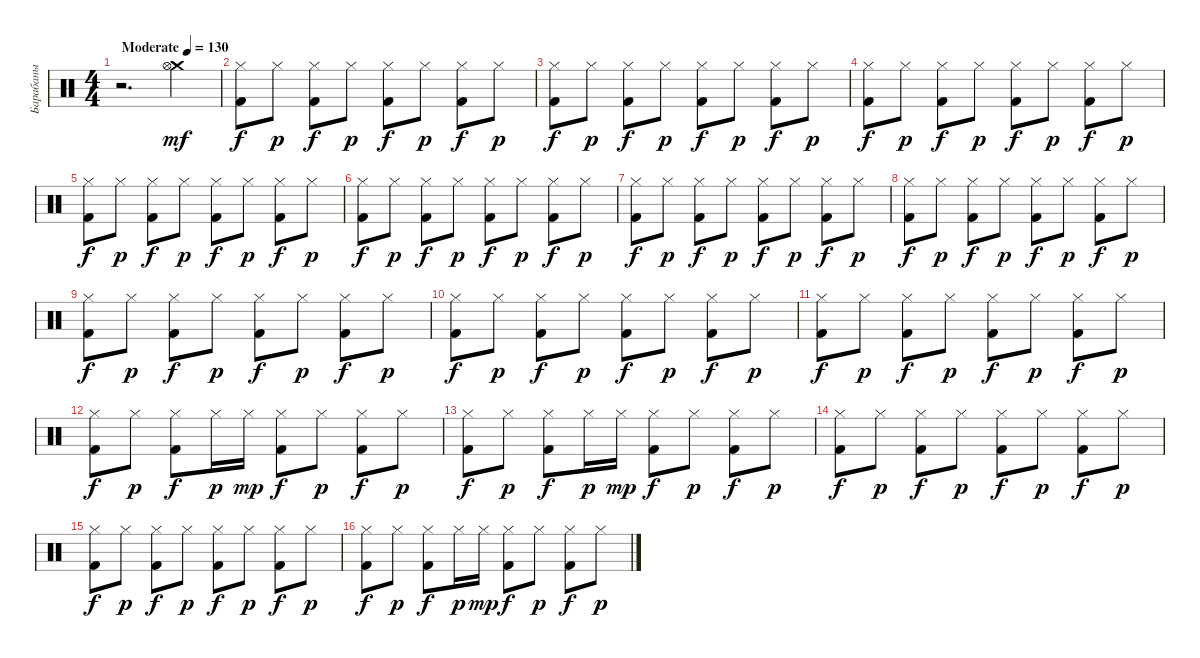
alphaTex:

\track ("Барабаны" "Барабаны") {instrument percussion}
\staff {score}
\articulation defaults
\ts (4 4)
\tempo (130 "Moderate")
\clef neutral
\ks c
r.2{d dy mf} ("Crash medium (hit)" "Hi-Hat (open)").4 |
("Hi-Hat (closed)" "Kick (hit) 2").8{dy f} "Hi-Hat (closed)".8{dy p} ("Hi-Hat (closed)" "Kick (hit) 2").8{dy f} "Hi-Hat (closed)".8{dy p} ("Hi-Hat (closed)" "Kick (hit) 2").8{dy f} "Hi-Hat (closed)".8{dy p} ("Hi-Hat (closed)" "Kick (hit) 2").8{dy f} "Hi-Hat (closed)".8{dy p} |
("Hi-Hat (closed)" "Kick (hit) 2").8{dy f} "Hi-Hat (closed)".8{dy p} ("Hi-Hat (closed)" "Kick (hit) 2").8{dy f} "Hi-Hat (closed)".8{dy p} ("Hi-Hat (closed)" "Kick (hit) 2").8{dy f} "Hi-Hat (closed)".8{dy p} ("Hi-Hat (closed)" "Kick (hit) 2").8{dy f} "Hi-Hat (closed)".8{dy p} |
("Hi-Hat (closed)" "Kick (hit) 2").8{dy f} "Hi-Hat (closed)".8{dy p} ("Hi-Hat (closed)" "Kick (hit) 2").8{dy f} "Hi-Hat (closed)".8{dy p} ("Hi-Hat (closed)" "Kick (hit) 2").8{dy f} "Hi-Hat (closed)".8{dy p} ("Hi-Hat (closed)" "Kick (hit) 2").8{dy f} "Hi-Hat (closed)".8{dy p} |
("Hi-Hat (closed)" "Kick (hit) 2").8{dy f} "Hi-Hat (closed)".8{dy p} ("Hi-Hat (closed)" "Kick (hit) 2").8{dy f} "Hi-Hat (closed)".8{dy p} ("Hi-Hat (closed)" "Kick (hit) 2").8{dy f} "Hi-Hat (closed)".8{dy p} ("Hi-Hat (closed)" "Kick (hit) 2").8{dy f} "Hi-Hat (closed)".8{dy p} |
("Hi-Hat (closed)" "Kick (hit) 2").8{dy f} "Hi-Hat (closed)".8{dy p} ("Hi-Hat (closed)" "Kick (hit) 2").8{dy f} "Hi-Hat (closed)".8{dy p} ("Hi-Hat (closed)" "Kick (hit) 2").8{dy f} "Hi-Hat (closed)".8{dy p} ("Hi-Hat (closed)" "Kick (hit) 2").8{dy f} "Hi-Hat (closed)".8{dy p} |
("Hi-Hat (closed)" "Kick (hit) 2").8{dy f} "Hi-Hat (closed)".8{dy p} ("Hi-Hat (closed)" "Kick (hit) 2").8{dy f} "Hi-Hat (closed)".8{dy p} ("Hi-Hat (closed)" "Kick (hit) 2").8{dy f} "Hi-Hat (closed)".8{dy p} ("Hi-Hat (closed)" "Kick (hit) 2").8{dy f} "Hi-Hat (closed)".8{dy p} |
("Hi-Hat (closed)" "Kick (hit) 2").8{dy f} "Hi-Hat (closed)".8{dy p} ("Hi-Hat (closed)" "Kick (hit) 2").8{dy f} "Hi-Hat (closed)".8{dy p} ("Hi-Hat (closed)" "Kick (hit) 2").8{dy f} "Hi-Hat (closed)".8{dy p} ("Hi-Hat (closed)" "Kick (hit) 2").8{dy f} "Hi-Hat (closed)".8{dy p} |
("Hi-Hat (closed)" "Kick (hit) 2").8{dy f} "Hi-Hat (closed)".8{dy p} ("Hi-Hat (closed)" "Kick (hit) 2").8{dy f} "Hi-Hat (closed)".8{dy p} ("Hi-Hat (closed)" "Kick (hit) 2").8{dy f} "Hi-Hat (closed)".8{dy p} ("Hi-Hat (closed)" "Kick (hit) 2").8{dy f} "Hi-Hat (closed)".8{dy p} |
("Hi-Hat (closed)" "Kick (hit) 2").8{dy f} "Hi-Hat (closed)".8{dy p} ("Hi-Hat (closed)" "Kick (hit) 2").8{dy f} "Hi-Hat (closed)".8{dy p} ("Hi-Hat (closed)" "Kick (hit) 2").8{dy f} "Hi-Hat (closed)".8{dy p} ("Hi-Hat (closed)" "Kick (hit) 2").8{dy f} "Hi-Hat (closed)".8{dy p} |
("Hi-Hat (closed)" "Kick (hit) 2").8{dy f} "Hi-Hat (closed)".8{dy p} ("Hi-Hat (closed)" "Kick (hit) 2").8{dy f} "Hi-Hat (closed)".8{dy p} ("Hi-Hat (closed)" "Kick (hit) 2").8{dy f} "Hi-Hat (closed)".8{dy p} ("Hi-Hat (closed)" "Kick (hit) 2").8{dy f} "Hi-Hat (closed)".8{dy p} |
("Hi-Hat (closed)" "Kick (hit) 2").8{dy f} "Hi-Hat (closed)".8{dy p} ("Hi-Hat (closed)" "Kick (hit) 2").8{dy f} "Hi-Hat (closed)".16{dy p} "Hi-Hat (closed)".16{dy mp} ("Hi-Hat (closed)" "Kick (hit) 2").8{dy f} "Hi-Hat (closed)".8{dy p} ("Hi-Hat (closed)" "Kick (hit) 2").8{dy f} "Hi-Hat (closed)".8{dy p} |
("Hi-Hat (closed)" "Kick (hit) 2").8{dy f} "Hi-Hat (closed)".8{dy p} ("Hi-Hat (closed)" "Kick (hit) 2").8{dy f} "Hi-Hat (closed)".16{dy p} "Hi-Hat (closed)".16{dy mp} ("Hi-Hat (closed)" "Kick (hit) 2").8{dy f} "Hi-Hat (closed)".8{dy p} ("Hi-Hat (closed)" "Kick (hit) 2").8{dy f} "Hi-Hat (closed)".8{dy p} |
("Hi-Hat (closed)" "Kick (hit) 2").8{dy f} "Hi-Hat (closed)".8{dy p} ("Hi-Hat (closed)" "Kick (hit) 2").8{dy f} "Hi-Hat (closed)".8{dy p} ("Hi-Hat (closed)" "Kick (hit) 2").8{dy f} "Hi-Hat (closed)".8{dy p} ("Hi-Hat (closed)" "Kick (hit) 2").8{dy f} "Hi-Hat (closed)".8{dy p} |
("Hi-Hat (closed)" "Kick (hit) 2").8{dy f} "Hi-Hat (closed)".8{dy p} ("Hi-Hat (closed)" "Kick (hit) 2").8{dy f} "Hi-Hat (closed)".8{dy p} ("Hi-Hat (closed)" "Kick (hit) 2").8{dy f} "Hi-Hat (closed)".8{dy p} ("Hi-Hat (closed)" "Kick (hit) 2").8{dy f} "Hi-Hat (closed)".8{dy p} |
("Hi-Hat (closed)" "Kick (hit) 2").8{dy f} "Hi-Hat (closed)".8{dy p} ("Hi-Hat (closed)" "Kick (hit) 2").8{dy f} "Hi-Hat (closed)".16{dy p} "Hi-Hat (closed)".16{dy mp} ("Hi-Hat (closed)" "Kick (hit) 2").8{dy f} "Hi-Hat (closed)".8{dy p} ("Hi-Hat (closed)" "Kick (hit) 2").8{dy f} "Hi-Hat (closed)".8{dy p}
